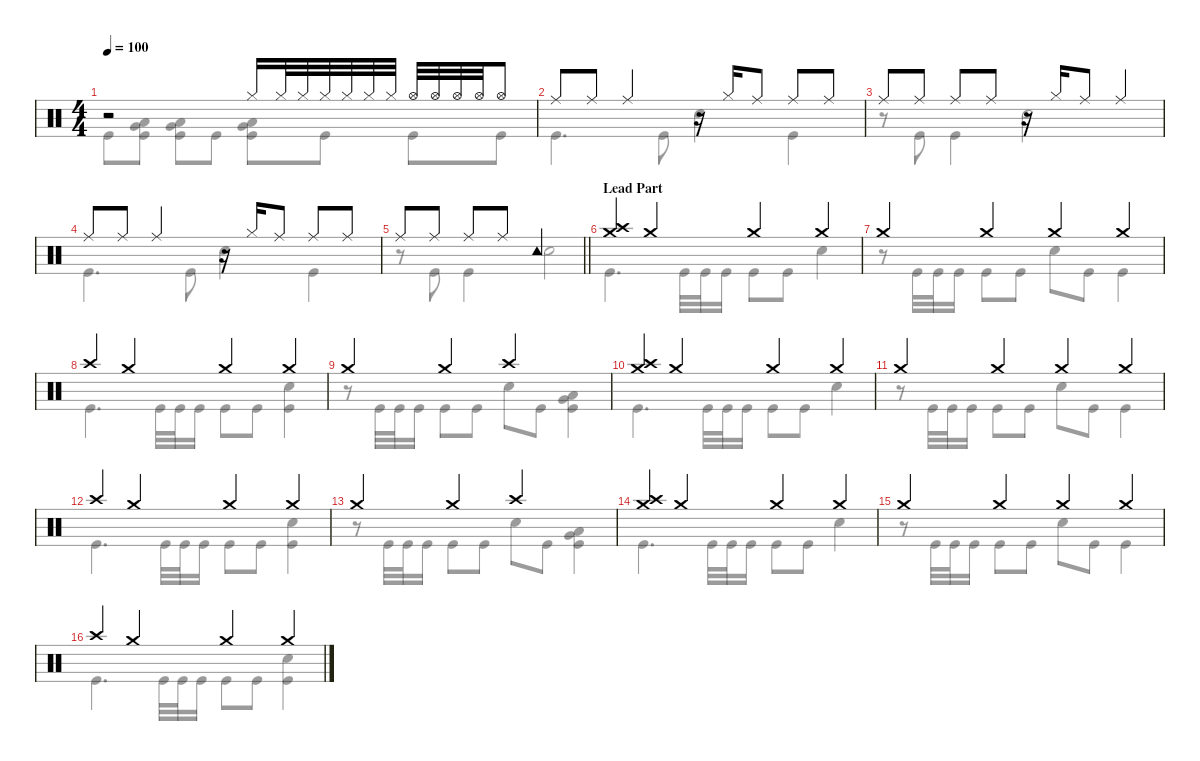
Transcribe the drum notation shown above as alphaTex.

\defaultSystemsLayout 4
\hideDynamics
\bracketExtendMode nobrackets
\singleTrackTrackNamePolicy hidden
\multiTrackTrackNamePolicy hidden
\firstSystemTrackNameMode fullname
\otherSystemsTrackNameOrientation horizontal
\track ("Drums" "drm.") {instrument percussion}
\staff {score}
\articulation defaults
\voice
\ts (4 4)
\tempo 100
\clef neutral
\ks c
r.2{dy f beam Up} "Hi-Hat (closed)".16{dy pp beam Up} "Hi-Hat (closed)".32{beam Up} "Hi-Hat (closed)".32{beam Up} "Hi-Hat (closed)".32{dy p beam Up} "Hi-Hat (closed)".32{beam Up} "Hi-Hat (closed)".32{dy mp beam Up} "Hi-Hat (closed)".32{beam Up} "Hi-Hat (open)".32{dy mf beam Up} "Hi-Hat (open)".32{beam Up} "Hi-Hat (open)".32{beam Up} "Hi-Hat (open)".32{dy f beam Up} "Hi-Hat (open)".8{beam Up} |
"Ride (middle)".8{beam Up} "Ride (middle)".8{beam Up} "Ride (middle)".4{beam Up} r.16{beam Up} "Hi-Hat (closed)".16{beam Up} "Ride (middle)".8{beam Up} "Ride (middle)".8{beam Up} "Ride (middle)".8{beam Up} |
"Ride (middle)".8{beam Up} "Ride (middle)".8{beam Up} "Ride (middle)".8{beam Up} "Ride (middle)".8{beam Up} r.16{beam Up} "Hi-Hat (closed)".16{beam Up} "Ride (middle)".8{beam Up} "Ride (middle)".4{beam Up} |
"Ride (middle)".8{beam Up} "Ride (middle)".8{beam Up} "Ride (middle)".4{beam Up} r.16{beam Up} "Hi-Hat (closed)".16{beam Up} "Ride (middle)".8{beam Up} "Ride (middle)".8{beam Up} "Ride (middle)".8{beam Up} |
\barLineRight lightlight "Ride (middle)".8{beam Up} "Ride (middle)".8{beam Up} "Ride (middle)".8{beam Up} "Ride (middle)".8{beam Up} "Tambourine (hit)".2{beam Up}
|
\section ("" "Lead Part")
("Crash medium (hit)" "Crash high (hit)").4{beam Up} "Crash medium (hit)".4{beam Up} "Crash medium (hit)".4{beam Up} "Crash medium (hit)".4{beam Up} |
"Crash medium (hit)".4{beam Up} "Crash medium (hit)".4{beam Up} "Crash medium (hit)".4{beam Up} "Crash medium (hit)".4{beam Up} |
"Crash high (hit)".4{beam Up} "Crash medium (hit)".4{beam Up} "Crash medium (hit)".4{beam Up} "Crash medium (hit)".4{beam Up} |
"Crash medium (hit)".4{beam Up} "Crash medium (hit)".4{beam Up} "Crash high (hit)".2{beam Up} |
("Crash medium (hit)" "Crash high (hit)").4{beam Up} "Crash medium (hit)".4{beam Up} "Crash medium (hit)".4{beam Up} "Crash medium (hit)".4{beam Up} |
"Crash medium (hit)".4{beam Up} "Crash medium (hit)".4{beam Up} "Crash medium (hit)".4{beam Up} "Crash medium (hit)".4{beam Up} |
"Crash high (hit)".4{beam Up} "Crash medium (hit)".4{beam Up} "Crash medium (hit)".4{beam Up} "Crash medium (hit)".4{beam Up} |
"Crash medium (hit)".4{beam Up} "Crash medium (hit)".4{beam Up} "Crash high (hit)".2{beam Up} |
("Crash medium (hit)" "Crash high (hit)").4{beam Up} "Crash medium (hit)".4{beam Up} "Crash medium (hit)".4{beam Up} "Crash medium (hit)".4{beam Up} |
"Crash medium (hit)".4{beam Up} "Crash medium (hit)".4{beam Up} "Crash medium (hit)".4{beam Up} "Crash medium (hit)".4{beam Up} |
"Crash high (hit)".4{beam Up} "Crash medium (hit)".4{beam Up} "Crash medium (hit)".4{beam Up} "Crash medium (hit)".4{beam Up}
\voice
\clef neutral
\ottava regular
\simile none
\ks c "Kick (hit)".8{dy f beam Down}
("Low Tom (hit)" "Very Low Tom (hit)" "Kick (hit)").8{beam Down} ("Low Tom (hit)" "Very Low Tom (hit)" "Kick (hit)").8{beam Down} "Kick (hit)".8{beam Down} ("Low Tom (hit)" "Very Low Tom (hit)" "Kick (hit)").8{beam Down} "Kick (hit)".8{beam Down} "Kick (hit)".8{beam Down} "Kick (hit)".8{beam Down} |
"Kick (hit)".4{d beam Down} "Kick (hit)".8{beam Down} "Snare (hit) 2".4{beam Down} "Kick (hit)".4{beam Down} |
r.8{beam Down} "Kick (hit)".8{beam Down} "Kick (hit)".4{beam Down} "Snare (hit) 2".2{beam Down} |
"Kick (hit)".4{d beam Down} "Kick (hit)".8{beam Down} "Snare (hit) 2".4{beam Down} "Kick (hit)".4{beam Down} |
\barLineRight lightlight
r.8{beam Down} "Kick (hit)".8{beam Down} "Kick (hit)".4{beam Down} "Snare (hit) 2".2{beam Down} |
"Kick (hit)".4{d beam Down} "Kick (hit)".32{beam Down} "Kick (hit)".32{beam Down} "Kick (hit)".16{beam Down} "Kick (hit)".8{beam Down} "Kick (hit)".8{beam Down} "Snare (hit) 2".4{beam Down} |
r.8{beam Down} "Kick (hit)".32{beam Down} "Kick (hit)".32{beam Down} "Kick (hit)".16{beam Down} "Kick (hit)".8{beam Down} "Kick (hit)".8{beam Down} "Snare (hit) 2".8{beam Down} "Kick (hit)".8{beam Down} "Kick (hit)".4{beam Down} |
"Kick (hit)".4{d beam Down} "Kick (hit)".32{beam Down} "Kick (hit)".32{beam Down} "Kick (hit)".16{beam Down} "Kick (hit)".8{beam Down} "Kick (hit)".8{beam Down} ("Snare (hit) 2" "Kick (hit)").4{beam Down} |
r.8{beam Down} "Kick (hit)".32{beam Down} "Kick (hit)".32{beam Down} "Kick (hit)".16{beam Down} "Kick (hit)".8{beam Down} "Kick (hit)".8{beam Down} "Snare (hit) 2".8{beam Down} "Kick (hit)".8{beam Down} ("Very Low Tom (hit)" "Low Floor Tom (hit)" "Kick (hit)").4{beam Down} |
"Kick (hit)".4{d beam Down} "Kick (hit)".32{beam Down} "Kick (hit)".32{beam Down} "Kick (hit)".16{beam Down} "Kick (hit)".8{beam Down} "Kick (hit)".8{beam Down} "Snare (hit) 2".4{beam Down} |
r.8{beam Down} "Kick (hit)".32{beam Down} "Kick (hit)".32{beam Down} "Kick (hit)".16{beam Down} "Kick (hit)".8{beam Down} "Kick (hit)".8{beam Down} "Snare (hit) 2".8{beam Down} "Kick (hit)".8{beam Down} "Kick (hit)".4{beam Down} |
"Kick (hit)".4{d beam Down} "Kick (hit)".32{beam Down} "Kick (hit)".32{beam Down} "Kick (hit)".16{beam Down} "Kick (hit)".8{beam Down} "Kick (hit)".8{beam Down} ("Snare (hit) 2" "Kick (hit)").4{beam Down} |
r.8{beam Down} "Kick (hit)".32{beam Down} "Kick (hit)".32{beam Down} "Kick (hit)".16{beam Down} "Kick (hit)".8{beam Down} "Kick (hit)".8{beam Down} "Snare (hit) 2".8{beam Down} "Kick (hit)".8{beam Down} ("Very Low Tom (hit)" "Low Floor Tom (hit)" "Kick (hit)").4{beam Down} |
"Kick (hit)".4{d beam Down} "Kick (hit)".32{beam Down} "Kick (hit)".32{beam Down} "Kick (hit)".16{beam Down} "Kick (hit)".8{beam Down} "Kick (hit)".8{beam Down} "Snare (hit) 2".4{beam Down} |
r.8{beam Down} "Kick (hit)".32{beam Down} "Kick (hit)".32{beam Down} "Kick (hit)".16{beam Down} "Kick (hit)".8{beam Down} "Kick (hit)".8{beam Down} "Snare (hit) 2".8{beam Down} "Kick (hit)".8{beam Down} "Kick (hit)".4{beam Down} |
"Kick (hit)".4{d beam Down} "Kick (hit)".32{beam Down} "Kick (hit)".32{beam Down} "Kick (hit)".16{beam Down} "Kick (hit)".8{beam Down} "Kick (hit)".8{beam Down} ("Snare (hit) 2" "Kick (hit)").4{beam Down}
